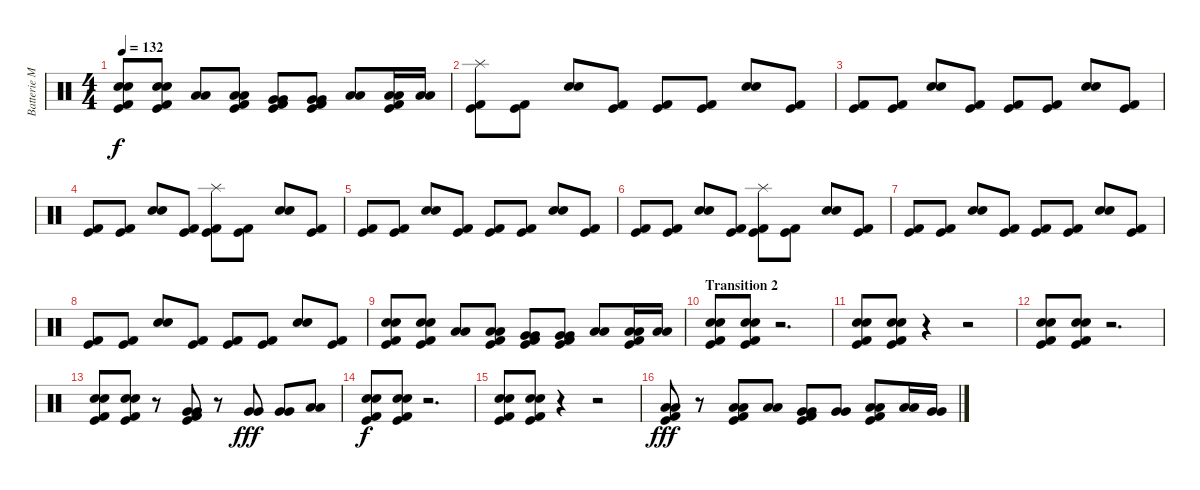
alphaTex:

\track ("Batterie Mat" "Batterie M") {instrument percussion}
\staff {score}
\articulation defaults
\ts (4 4)
\tempo 132
\clef neutral
\ks c
("Electric Snare (hit)" "Electric Snare (hit)" "Kick (hit) 2" "Kick (hit)").8{dy f} ("Electric Snare (hit)" "Electric Snare (hit)" "Kick (hit) 2" "Kick (hit)").8 ("Low Tom (hit)" "Low Tom (hit)").8 ("Low Tom (hit)" "Low Tom (hit)" "Kick (hit) 2" "Kick (hit)").8 ("Very Low Tom (hit)" "Very Low Tom (hit)" "Kick (hit) 2" "Kick (hit)").8 ("Very Low Tom (hit)" "Very Low Tom (hit)" "Kick (hit) 2" "Kick (hit)").8 ("Low Floor Tom (hit)" "Low Floor Tom (hit)").8 ("Low Floor Tom (hit)" "Low Floor Tom (hit)" "Kick (hit) 2" "Kick (hit)").16 ("Low Floor Tom (hit)" "Low Floor Tom (hit)").16 |
("Splash (hit)" "Kick (hit) 2" "Kick (hit)").8 ("Kick (hit) 2" "Kick (hit)").8 ("Electric Snare (hit)" "Electric Snare (hit)").8 ("Kick (hit) 2" "Kick (hit)").8 ("Kick (hit) 2" "Kick (hit)").8 ("Kick (hit) 2" "Kick (hit)").8 ("Electric Snare (hit)" "Electric Snare (hit)").8 ("Kick (hit) 2" "Kick (hit)").8 |
("Kick (hit) 2" "Kick (hit)").8 ("Kick (hit) 2" "Kick (hit)").8 ("Electric Snare (hit)" "Electric Snare (hit)").8 ("Kick (hit) 2" "Kick (hit)").8 ("Kick (hit) 2" "Kick (hit)").8 ("Kick (hit) 2" "Kick (hit)").8 ("Electric Snare (hit)" "Electric Snare (hit)").8 ("Kick (hit) 2" "Kick (hit)").8 |
("Kick (hit) 2" "Kick (hit)").8 ("Kick (hit) 2" "Kick (hit)").8 ("Electric Snare (hit)" "Electric Snare (hit)").8 ("Kick (hit) 2" "Kick (hit)").8 ("Splash (hit)" "Kick (hit) 2" "Kick (hit)").8 ("Kick (hit) 2" "Kick (hit)").8 ("Electric Snare (hit)" "Electric Snare (hit)").8 ("Kick (hit) 2" "Kick (hit)").8 |
("Kick (hit) 2" "Kick (hit)").8 ("Kick (hit) 2" "Kick (hit)").8 ("Electric Snare (hit)" "Electric Snare (hit)").8 ("Kick (hit) 2" "Kick (hit)").8 ("Kick (hit) 2" "Kick (hit)").8 ("Kick (hit) 2" "Kick (hit)").8 ("Electric Snare (hit)" "Electric Snare (hit)").8 ("Kick (hit) 2" "Kick (hit)").8 |
("Kick (hit) 2" "Kick (hit)").8 ("Kick (hit) 2" "Kick (hit)").8 ("Electric Snare (hit)" "Electric Snare (hit)").8 ("Kick (hit) 2" "Kick (hit)").8 ("Splash (hit)" "Kick (hit) 2" "Kick (hit)").8 ("Kick (hit) 2" "Kick (hit)").8 ("Electric Snare (hit)" "Electric Snare (hit)").8 ("Kick (hit) 2" "Kick (hit)").8 |
("Kick (hit) 2" "Kick (hit)").8 ("Kick (hit) 2" "Kick (hit)").8 ("Electric Snare (hit)" "Electric Snare (hit)").8 ("Kick (hit) 2" "Kick (hit)").8 ("Kick (hit) 2" "Kick (hit)").8 ("Kick (hit) 2" "Kick (hit)").8 ("Electric Snare (hit)" "Electric Snare (hit)").8 ("Kick (hit) 2" "Kick (hit)").8 |
("Kick (hit) 2" "Kick (hit)").8 ("Kick (hit) 2" "Kick (hit)").8 ("Electric Snare (hit)" "Electric Snare (hit)").8 ("Kick (hit) 2" "Kick (hit)").8 ("Kick (hit) 2" "Kick (hit)").8 ("Kick (hit) 2" "Kick (hit)").8 ("Electric Snare (hit)" "Electric Snare (hit)").8 ("Kick (hit) 2" "Kick (hit)").8 |
("Electric Snare (hit)" "Electric Snare (hit)" "Kick (hit) 2" "Kick (hit)").8 ("Electric Snare (hit)" "Electric Snare (hit)" "Kick (hit) 2" "Kick (hit)").8 ("Low Tom (hit)" "Low Tom (hit)").8 ("Low Tom (hit)" "Low Tom (hit)" "Kick (hit) 2" "Kick (hit)").8 ("Very Low Tom (hit)" "Very Low Tom (hit)" "Kick (hit) 2" "Kick (hit)").8 ("Very Low Tom (hit)" "Very Low Tom (hit)" "Kick (hit) 2" "Kick (hit)").8 ("Low Floor Tom (hit)" "Low Floor Tom (hit)").8 ("Low Floor Tom (hit)" "Low Floor Tom (hit)" "Kick (hit) 2" "Kick (hit)").16 ("Low Floor Tom (hit)" "Low Floor Tom (hit)").16 |
\section ("" "Transition 2")
("Electric Snare (hit)" "Electric Snare (hit)" "Kick (hit) 2" "Kick (hit)").8 ("Electric Snare (hit)" "Electric Snare (hit)" "Kick (hit) 2" "Kick (hit)").8 r.2{d} |
("Electric Snare (hit)" "Electric Snare (hit)" "Kick (hit) 2" "Kick (hit)").8 ("Electric Snare (hit)" "Electric Snare (hit)" "Kick (hit) 2" "Kick (hit)").8 r.4 r.2 |
("Electric Snare (hit)" "Electric Snare (hit)" "Kick (hit) 2" "Kick (hit)").8 ("Electric Snare (hit)" "Electric Snare (hit)" "Kick (hit) 2" "Kick (hit)").8 r.2{d} |
("Electric Snare (hit)" "Electric Snare (hit)" "Kick (hit) 2" "Kick (hit)").8 ("Electric Snare (hit)" "Electric Snare (hit)" "Kick (hit) 2" "Kick (hit)").8 r.8 ("Very Low Tom (hit)" "Very Low Tom (hit)" "Kick (hit) 2" "Kick (hit)").8 r.8 ("Very Low Tom (hit)" "Very Low Tom (hit)").8{dy fff} ("Very Low Tom (hit)" "Very Low Tom (hit)").8 ("Low Floor Tom (hit)" "Low Floor Tom (hit)").8 |
("Electric Snare (hit)" "Electric Snare (hit)" "Kick (hit) 2" "Kick (hit)").8{dy f} ("Electric Snare (hit)" "Electric Snare (hit)" "Kick (hit) 2" "Kick (hit)").8 r.2{d} |
("Electric Snare (hit)" "Electric Snare (hit)" "Kick (hit) 2" "Kick (hit)").8 ("Electric Snare (hit)" "Electric Snare (hit)" "Kick (hit) 2" "Kick (hit)").8 r.4 r.2 |
("Low Tom (hit)" "Low Tom (hit)" "Kick (hit) 2" "Kick (hit)").8{dy fff} r.8 ("Low Floor Tom (hit)" "Low Floor Tom (hit)" "Kick (hit) 2" "Kick (hit)").8 ("Low Tom (hit)" "Low Tom (hit)").8 ("Very Low Tom (hit)" "Very Low Tom (hit)" "Kick (hit) 2" "Kick (hit)").8 ("Very Low Tom (hit)" "Very Low Tom (hit)").8 ("Low Floor Tom (hit)" "Low Floor Tom (hit)" "Kick (hit) 2" "Kick (hit)").8 ("Low Tom (hit)" "Low Tom (hit)").16 ("Very Low Tom (hit)" "Very Low Tom (hit)").16
